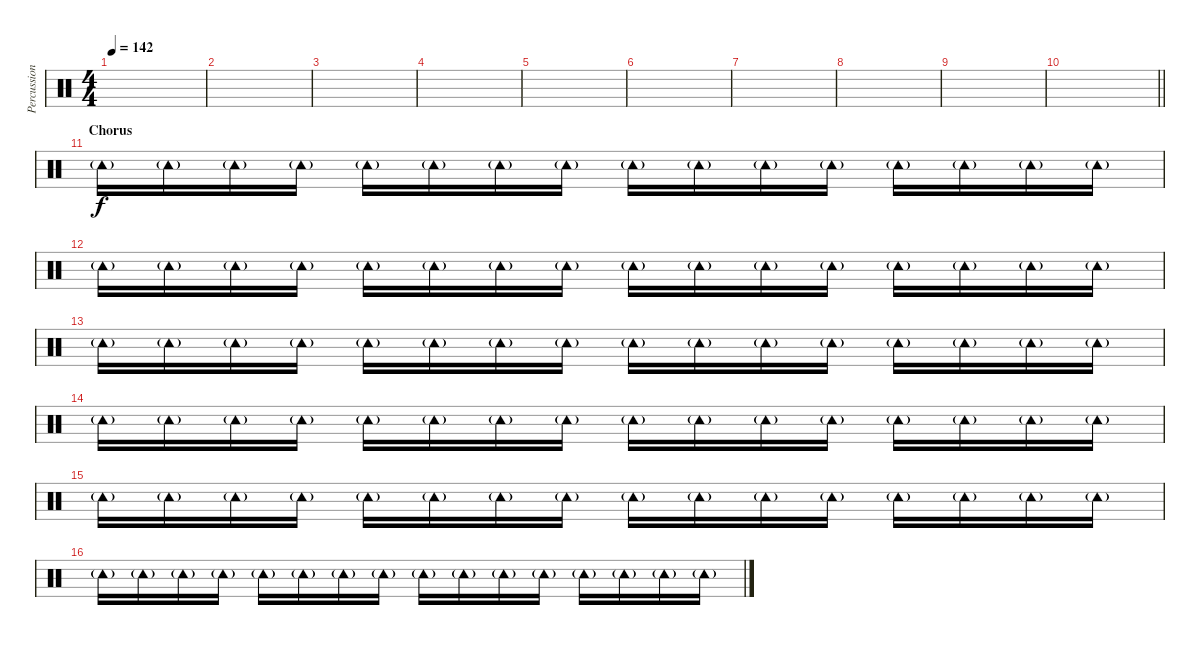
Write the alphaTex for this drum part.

\track ("Percussion" "Percussion") {instrument percussion}
\staff {score}
\articulation defaults
\ts (4 4)
\tempo 142
\clef neutral
\ks c
|
|
|
|
|
|
|
|
|
\barLineRight lightlight
|
\section ("" "Chorus")
"Tambourine (hit)"{g}.16 "Tambourine (hit)"{g}.16 "Tambourine (hit)"{g}.16 "Tambourine (hit)"{g}.16 "Tambourine (hit)"{g}.16 "Tambourine (hit)"{g}.16 "Tambourine (hit)"{g}.16 "Tambourine (hit)"{g}.16 "Tambourine (hit)"{g}.16 "Tambourine (hit)"{g}.16 "Tambourine (hit)"{g}.16 "Tambourine (hit)"{g}.16 "Tambourine (hit)"{g}.16 "Tambourine (hit)"{g}.16 "Tambourine (hit)"{g}.16 "Tambourine (hit)"{g}.16 |
"Tambourine (hit)"{g}.16 "Tambourine (hit)"{g}.16 "Tambourine (hit)"{g}.16 "Tambourine (hit)"{g}.16 "Tambourine (hit)"{g}.16 "Tambourine (hit)"{g}.16 "Tambourine (hit)"{g}.16 "Tambourine (hit)"{g}.16 "Tambourine (hit)"{g}.16 "Tambourine (hit)"{g}.16 "Tambourine (hit)"{g}.16 "Tambourine (hit)"{g}.16 "Tambourine (hit)"{g}.16 "Tambourine (hit)"{g}.16 "Tambourine (hit)"{g}.16 "Tambourine (hit)"{g}.16 |
"Tambourine (hit)"{g}.16 "Tambourine (hit)"{g}.16 "Tambourine (hit)"{g}.16 "Tambourine (hit)"{g}.16 "Tambourine (hit)"{g}.16 "Tambourine (hit)"{g}.16 "Tambourine (hit)"{g}.16 "Tambourine (hit)"{g}.16 "Tambourine (hit)"{g}.16 "Tambourine (hit)"{g}.16 "Tambourine (hit)"{g}.16 "Tambourine (hit)"{g}.16 "Tambourine (hit)"{g}.16 "Tambourine (hit)"{g}.16 "Tambourine (hit)"{g}.16 "Tambourine (hit)"{g}.16 |
"Tambourine (hit)"{g}.16 "Tambourine (hit)"{g}.16 "Tambourine (hit)"{g}.16 "Tambourine (hit)"{g}.16 "Tambourine (hit)"{g}.16 "Tambourine (hit)"{g}.16 "Tambourine (hit)"{g}.16 "Tambourine (hit)"{g}.16 "Tambourine (hit)"{g}.16 "Tambourine (hit)"{g}.16 "Tambourine (hit)"{g}.16 "Tambourine (hit)"{g}.16 "Tambourine (hit)"{g}.16 "Tambourine (hit)"{g}.16 "Tambourine (hit)"{g}.16 "Tambourine (hit)"{g}.16 |
"Tambourine (hit)"{g}.16 "Tambourine (hit)"{g}.16 "Tambourine (hit)"{g}.16 "Tambourine (hit)"{g}.16 "Tambourine (hit)"{g}.16 "Tambourine (hit)"{g}.16 "Tambourine (hit)"{g}.16 "Tambourine (hit)"{g}.16 "Tambourine (hit)"{g}.16 "Tambourine (hit)"{g}.16 "Tambourine (hit)"{g}.16 "Tambourine (hit)"{g}.16 "Tambourine (hit)"{g}.16 "Tambourine (hit)"{g}.16 "Tambourine (hit)"{g}.16 "Tambourine (hit)"{g}.16 |
"Tambourine (hit)"{g}.16 "Tambourine (hit)"{g}.16 "Tambourine (hit)"{g}.16 "Tambourine (hit)"{g}.16 "Tambourine (hit)"{g}.16 "Tambourine (hit)"{g}.16 "Tambourine (hit)"{g}.16 "Tambourine (hit)"{g}.16 "Tambourine (hit)"{g}.16 "Tambourine (hit)"{g}.16 "Tambourine (hit)"{g}.16 "Tambourine (hit)"{g}.16 "Tambourine (hit)"{g}.16 "Tambourine (hit)"{g}.16 "Tambourine (hit)"{g}.16 "Tambourine (hit)"{g}.16
